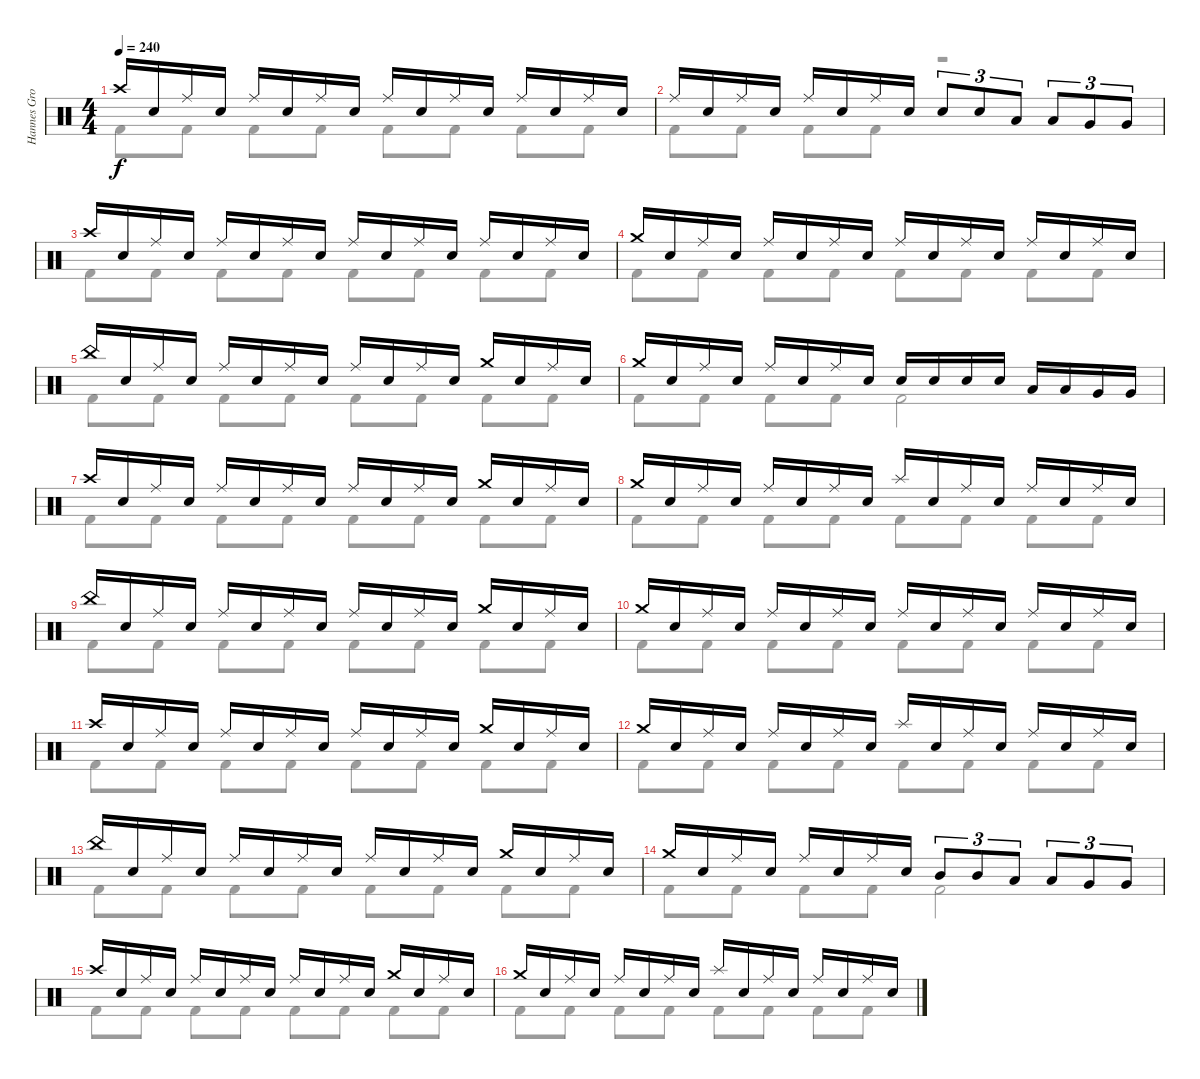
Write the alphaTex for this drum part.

\track ("Hannes Grossmann - drums" "Hannes Gro") {instrument percussion}
\staff {score}
\articulation defaults
\voice
\ts (4 4)
\tempo 240
\clef neutral
\ks c "Crash high (hit)".16{dy f} "Electric Snare (hit)".16 "Ride (middle)".16 "Electric Snare (hit)".16 "Ride (middle)".16 "Electric Snare (hit)".16 "Ride (middle)".16 "Electric Snare (hit)".16 "Ride (middle)".16 "Electric Snare (hit)".16 "Ride (middle)".16 "Electric Snare (hit)".16 "Ride (middle)".16 "Electric Snare (hit)".16 "Ride (middle)".16 "Electric Snare (hit)".16
|
"Ride (middle)".16 "Electric Snare (hit)".16 "Ride (middle)".16 "Electric Snare (hit)".16 "Ride (middle)".16 "Electric Snare (hit)".16 "Ride (middle)".16 "Electric Snare (hit)".16 "Electric Snare (hit)".8{tu (3 2)} "Electric Snare (hit)".8{tu (3 2)} "Low Tom (hit)".8{tu (3 2)} "Low Tom (hit)".8{tu (3 2)} "Very Low Tom (hit)".8{tu (3 2)} "Very Low Tom (hit)".8{tu (3 2)} |
"Crash high (hit)".16 "Electric Snare (hit)".16 "Ride (middle)".16 "Electric Snare (hit)".16 "Ride (middle)".16 "Electric Snare (hit)".16 "Ride (middle)".16 "Electric Snare (hit)".16 "Ride (middle)".16 "Electric Snare (hit)".16 "Ride (middle)".16 "Electric Snare (hit)".16 "Ride (middle)".16 "Electric Snare (hit)".16 "Ride (middle)".16 "Electric Snare (hit)".16 |
"Crash medium (hit)".16 "Electric Snare (hit)".16 "Ride (middle)".16 "Electric Snare (hit)".16 "Ride (middle)".16 "Electric Snare (hit)".16 "Ride (middle)".16 "Electric Snare (hit)".16 "Ride (middle)".16 "Electric Snare (hit)".16 "Ride (middle)".16 "Electric Snare (hit)".16 "Ride (middle)".16 "Electric Snare (hit)".16 "Ride (middle)".16 "Electric Snare (hit)".16 |
"China (hit)".16 "Electric Snare (hit)".16 "Ride (middle)".16 "Electric Snare (hit)".16 "Ride (middle)".16 "Electric Snare (hit)".16 "Ride (middle)".16 "Electric Snare (hit)".16 "Ride (middle)".16 "Electric Snare (hit)".16 "Ride (middle)".16 "Electric Snare (hit)".16 "Crash medium (hit)".16 "Electric Snare (hit)".16 "Ride (middle)".16 "Electric Snare (hit)".16 |
"Crash medium (hit)".16 "Electric Snare (hit)".16 "Ride (middle)".16 "Electric Snare (hit)".16 "Ride (middle)".16 "Electric Snare (hit)".16 "Ride (middle)".16 "Electric Snare (hit)".16 "Electric Snare (hit)".16 "Electric Snare (hit)".16 "Electric Snare (hit)".16 "Electric Snare (hit)".16 "Low Tom (hit)".16 "Low Tom (hit)".16 "Very Low Tom (hit)".16 "Very Low Tom (hit)".16 |
"Crash high (hit)".16 "Electric Snare (hit)".16 "Ride (middle)".16 "Electric Snare (hit)".16 "Ride (middle)".16 "Electric Snare (hit)".16 "Ride (middle)".16 "Electric Snare (hit)".16 "Ride (middle)".16 "Electric Snare (hit)".16 "Ride (middle)".16 "Electric Snare (hit)".16 "Crash medium (hit)".16 "Electric Snare (hit)".16 "Ride (middle)".16 "Electric Snare (hit)".16 |
"Crash medium (hit)".16 "Electric Snare (hit)".16 "Ride (middle)".16 "Electric Snare (hit)".16 "Ride (middle)".16 "Electric Snare (hit)".16 "Ride (middle)".16 "Electric Snare (hit)".16 "Splash (hit)".16 "Electric Snare (hit)".16 "Ride (middle)".16 "Electric Snare (hit)".16 "Ride (middle)".16 "Electric Snare (hit)".16 "Ride (middle)".16 "Electric Snare (hit)".16 |
"China (hit)".16 "Electric Snare (hit)".16 "Ride (middle)".16 "Electric Snare (hit)".16 "Ride (middle)".16 "Electric Snare (hit)".16 "Ride (middle)".16 "Electric Snare (hit)".16 "Ride (middle)".16 "Electric Snare (hit)".16 "Ride (middle)".16 "Electric Snare (hit)".16 "Crash medium (hit)".16 "Electric Snare (hit)".16 "Ride (middle)".16 "Electric Snare (hit)".16 |
"Crash medium (hit)".16 "Electric Snare (hit)".16 "Ride (middle)".16 "Electric Snare (hit)".16 "Ride (middle)".16 "Electric Snare (hit)".16 "Ride (middle)".16 "Electric Snare (hit)".16 "Ride (middle)".16 "Electric Snare (hit)".16 "Ride (middle)".16 "Electric Snare (hit)".16 "Ride (middle)".16 "Electric Snare (hit)".16 "Ride (middle)".16 "Electric Snare (hit)".16 |
"Crash high (hit)".16 "Electric Snare (hit)".16 "Ride (middle)".16 "Electric Snare (hit)".16 "Ride (middle)".16 "Electric Snare (hit)".16 "Ride (middle)".16 "Electric Snare (hit)".16 "Ride (middle)".16 "Electric Snare (hit)".16 "Ride (middle)".16 "Electric Snare (hit)".16 "Crash medium (hit)".16 "Electric Snare (hit)".16 "Ride (middle)".16 "Electric Snare (hit)".16 |
"Crash medium (hit)".16 "Electric Snare (hit)".16 "Ride (middle)".16 "Electric Snare (hit)".16 "Ride (middle)".16 "Electric Snare (hit)".16 "Ride (middle)".16 "Electric Snare (hit)".16 "Splash (hit)".16 "Electric Snare (hit)".16 "Ride (middle)".16 "Electric Snare (hit)".16 "Ride (middle)".16 "Electric Snare (hit)".16 "Ride (middle)".16 "Electric Snare (hit)".16 |
"China (hit)".16 "Electric Snare (hit)".16 "Ride (middle)".16 "Electric Snare (hit)".16 "Ride (middle)".16 "Electric Snare (hit)".16 "Ride (middle)".16 "Electric Snare (hit)".16 "Ride (middle)".16 "Electric Snare (hit)".16 "Ride (middle)".16 "Electric Snare (hit)".16 "Crash medium (hit)".16 "Electric Snare (hit)".16 "Ride (middle)".16 "Electric Snare (hit)".16 |
"Crash medium (hit)".16 "Electric Snare (hit)".16 "Ride (middle)".16 "Electric Snare (hit)".16 "Ride (middle)".16 "Electric Snare (hit)".16 "Ride (middle)".16 "Electric Snare (hit)".16 "Mid Tom (hit)".8{tu (3 2)} "Mid Tom (hit)".8{tu (3 2)} "Low Tom (hit)".8{tu (3 2)} "Low Tom (hit)".8{tu (3 2)} "Very Low Tom (hit)".8{tu (3 2)} "Very Low Tom (hit)".8{tu (3 2)} |
"Crash high (hit)".16 "Electric Snare (hit)".16 "Ride (middle)".16 "Electric Snare (hit)".16 "Ride (middle)".16 "Electric Snare (hit)".16 "Ride (middle)".16 "Electric Snare (hit)".16 "Ride (middle)".16 "Electric Snare (hit)".16 "Ride (middle)".16 "Electric Snare (hit)".16 "Crash medium (hit)".16 "Electric Snare (hit)".16 "Ride (middle)".16 "Electric Snare (hit)".16 |
"Crash medium (hit)".16 "Electric Snare (hit)".16 "Ride (middle)".16 "Electric Snare (hit)".16 "Ride (middle)".16 "Electric Snare (hit)".16 "Ride (middle)".16 "Electric Snare (hit)".16 "Splash (hit)".16 "Electric Snare (hit)".16 "Ride (middle)".16 "Electric Snare (hit)".16 "Ride (middle)".16 "Electric Snare (hit)".16 "Ride (middle)".16 "Electric Snare (hit)".16
\voice
\clef neutral
\ottava regular
\simile none
\ks c "Kick (hit) 2".8{dy f} "Kick (hit) 2".8 "Kick (hit) 2".8 "Kick (hit) 2".8 "Kick (hit) 2".8 "Kick (hit) 2".8 "Kick (hit) 2".8 "Kick (hit) 2".8
|
"Kick (hit) 2".8 "Kick (hit) 2".8 "Kick (hit) 2".8 "Kick (hit) 2".8 r.2 |
"Kick (hit) 2".8 "Kick (hit) 2".8 "Kick (hit) 2".8 "Kick (hit) 2".8 "Kick (hit) 2".8 "Kick (hit) 2".8 "Kick (hit) 2".8 "Kick (hit) 2".8 |
"Kick (hit) 2".8 "Kick (hit) 2".8 "Kick (hit) 2".8 "Kick (hit) 2".8 "Kick (hit) 2".8 "Kick (hit) 2".8 "Kick (hit) 2".8 "Kick (hit) 2".8 |
"Kick (hit) 2".8 "Kick (hit) 2".8 "Kick (hit) 2".8 "Kick (hit) 2".8 "Kick (hit) 2".8 "Kick (hit) 2".8 "Kick (hit) 2".8 "Kick (hit) 2".8 |
"Kick (hit) 2".8 "Kick (hit) 2".8 "Kick (hit) 2".8 "Kick (hit) 2".8 "Kick (hit) 2".2 |
"Kick (hit) 2".8 "Kick (hit) 2".8 "Kick (hit) 2".8 "Kick (hit) 2".8 "Kick (hit) 2".8 "Kick (hit) 2".8 "Kick (hit) 2".8 "Kick (hit) 2".8 |
"Kick (hit) 2".8 "Kick (hit) 2".8 "Kick (hit) 2".8 "Kick (hit) 2".8 "Kick (hit) 2".8 "Kick (hit) 2".8 "Kick (hit) 2".8 "Kick (hit) 2".8 |
"Kick (hit) 2".8 "Kick (hit) 2".8 "Kick (hit) 2".8 "Kick (hit) 2".8 "Kick (hit) 2".8 "Kick (hit) 2".8 "Kick (hit) 2".8 "Kick (hit) 2".8 |
"Kick (hit) 2".8 "Kick (hit) 2".8 "Kick (hit) 2".8 "Kick (hit) 2".8 "Kick (hit) 2".8 "Kick (hit) 2".8 "Kick (hit) 2".8 "Kick (hit) 2".8 |
"Kick (hit) 2".8 "Kick (hit) 2".8 "Kick (hit) 2".8 "Kick (hit) 2".8 "Kick (hit) 2".8 "Kick (hit) 2".8 "Kick (hit) 2".8 "Kick (hit) 2".8 |
"Kick (hit) 2".8 "Kick (hit) 2".8 "Kick (hit) 2".8 "Kick (hit) 2".8 "Kick (hit) 2".8 "Kick (hit) 2".8 "Kick (hit) 2".8 "Kick (hit) 2".8 |
"Kick (hit) 2".8 "Kick (hit) 2".8 "Kick (hit) 2".8 "Kick (hit) 2".8 "Kick (hit) 2".8 "Kick (hit) 2".8 "Kick (hit) 2".8 "Kick (hit) 2".8 |
"Kick (hit) 2".8 "Kick (hit) 2".8 "Kick (hit) 2".8 "Kick (hit) 2".8 "Kick (hit) 2".2 |
"Kick (hit) 2".8 "Kick (hit) 2".8 "Kick (hit) 2".8 "Kick (hit) 2".8 "Kick (hit) 2".8 "Kick (hit) 2".8 "Kick (hit) 2".8 "Kick (hit) 2".8 |
"Kick (hit) 2".8 "Kick (hit) 2".8 "Kick (hit) 2".8 "Kick (hit) 2".8 "Kick (hit) 2".8 "Kick (hit) 2".8 "Kick (hit) 2".8 "Kick (hit) 2".8
